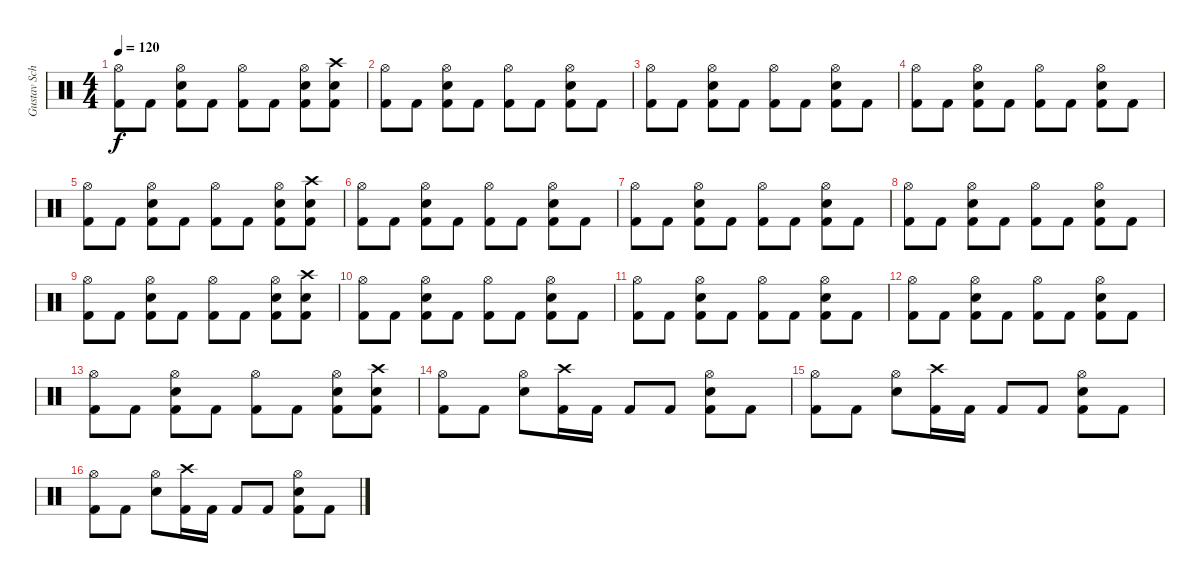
\track ("Gustav Schäfer" "Gustav Sch") {instrument percussion}
\staff {score}
\articulation defaults
\ts (4 4)
\tempo 120
\clef neutral
\ks c
("Hi-Hat (open)" "Kick (hit) 2").8{dy f} "Kick (hit) 2".8 ("Hi-Hat (open)" "Electric Snare (hit)" "Kick (hit) 2").8 "Kick (hit) 2".8 ("Hi-Hat (open)" "Kick (hit) 2").8 "Kick (hit) 2".8 ("Hi-Hat (open)" "Electric Snare (hit)" "Kick (hit) 2").8 ("Crash high (hit)" "Electric Snare (hit)" "Kick (hit) 2").8 |
("Hi-Hat (open)" "Kick (hit) 2").8 "Kick (hit) 2".8 ("Hi-Hat (open)" "Electric Snare (hit)" "Kick (hit) 2").8 "Kick (hit) 2".8 ("Hi-Hat (open)" "Kick (hit) 2").8 "Kick (hit) 2".8 ("Hi-Hat (open)" "Electric Snare (hit)" "Kick (hit) 2").8 "Kick (hit) 2".8 |
("Hi-Hat (open)" "Kick (hit) 2").8 "Kick (hit) 2".8 ("Hi-Hat (open)" "Electric Snare (hit)" "Kick (hit) 2").8 "Kick (hit) 2".8 ("Hi-Hat (open)" "Kick (hit) 2").8 "Kick (hit) 2".8 ("Hi-Hat (open)" "Electric Snare (hit)" "Kick (hit) 2").8 "Kick (hit) 2".8 |
("Hi-Hat (open)" "Kick (hit) 2").8 "Kick (hit) 2".8 ("Hi-Hat (open)" "Electric Snare (hit)" "Kick (hit) 2").8 "Kick (hit) 2".8 ("Hi-Hat (open)" "Kick (hit) 2").8 "Kick (hit) 2".8 ("Hi-Hat (open)" "Electric Snare (hit)" "Kick (hit) 2").8 "Kick (hit) 2".8 |
("Hi-Hat (open)" "Kick (hit) 2").8 "Kick (hit) 2".8 ("Hi-Hat (open)" "Electric Snare (hit)" "Kick (hit) 2").8 "Kick (hit) 2".8 ("Hi-Hat (open)" "Kick (hit) 2").8 "Kick (hit) 2".8 ("Hi-Hat (open)" "Electric Snare (hit)" "Kick (hit) 2").8 ("Crash high (hit)" "Electric Snare (hit)" "Kick (hit) 2").8 |
("Hi-Hat (open)" "Kick (hit) 2").8 "Kick (hit) 2".8 ("Hi-Hat (open)" "Electric Snare (hit)" "Kick (hit) 2").8 "Kick (hit) 2".8 ("Hi-Hat (open)" "Kick (hit) 2").8 "Kick (hit) 2".8 ("Hi-Hat (open)" "Electric Snare (hit)" "Kick (hit) 2").8 "Kick (hit) 2".8 |
("Hi-Hat (open)" "Kick (hit) 2").8 "Kick (hit) 2".8 ("Hi-Hat (open)" "Electric Snare (hit)" "Kick (hit) 2").8 "Kick (hit) 2".8 ("Hi-Hat (open)" "Kick (hit) 2").8 "Kick (hit) 2".8 ("Hi-Hat (open)" "Electric Snare (hit)" "Kick (hit) 2").8 "Kick (hit) 2".8 |
("Hi-Hat (open)" "Kick (hit) 2").8 "Kick (hit) 2".8 ("Hi-Hat (open)" "Electric Snare (hit)" "Kick (hit) 2").8 "Kick (hit) 2".8 ("Hi-Hat (open)" "Kick (hit) 2").8 "Kick (hit) 2".8 ("Hi-Hat (open)" "Electric Snare (hit)" "Kick (hit) 2").8 "Kick (hit) 2".8 |
("Hi-Hat (open)" "Kick (hit) 2").8 "Kick (hit) 2".8 ("Hi-Hat (open)" "Electric Snare (hit)" "Kick (hit) 2").8 "Kick (hit) 2".8 ("Hi-Hat (open)" "Kick (hit) 2").8 "Kick (hit) 2".8 ("Hi-Hat (open)" "Electric Snare (hit)" "Kick (hit) 2").8 ("Crash high (hit)" "Electric Snare (hit)" "Kick (hit) 2").8 |
("Hi-Hat (open)" "Kick (hit) 2").8 "Kick (hit) 2".8 ("Hi-Hat (open)" "Electric Snare (hit)" "Kick (hit) 2").8 "Kick (hit) 2".8 ("Hi-Hat (open)" "Kick (hit) 2").8 "Kick (hit) 2".8 ("Hi-Hat (open)" "Electric Snare (hit)" "Kick (hit) 2").8 "Kick (hit) 2".8 |
("Hi-Hat (open)" "Kick (hit) 2").8 "Kick (hit) 2".8 ("Hi-Hat (open)" "Electric Snare (hit)" "Kick (hit) 2").8 "Kick (hit) 2".8 ("Hi-Hat (open)" "Kick (hit) 2").8 "Kick (hit) 2".8 ("Hi-Hat (open)" "Electric Snare (hit)" "Kick (hit) 2").8 "Kick (hit) 2".8 |
("Hi-Hat (open)" "Kick (hit) 2").8 "Kick (hit) 2".8 ("Hi-Hat (open)" "Electric Snare (hit)" "Kick (hit) 2").8 "Kick (hit) 2".8 ("Hi-Hat (open)" "Kick (hit) 2").8 "Kick (hit) 2".8 ("Hi-Hat (open)" "Electric Snare (hit)" "Kick (hit) 2").8 "Kick (hit) 2".8 |
("Hi-Hat (open)" "Kick (hit) 2").8 "Kick (hit) 2".8 ("Hi-Hat (open)" "Electric Snare (hit)" "Kick (hit) 2").8 "Kick (hit) 2".8 ("Hi-Hat (open)" "Kick (hit) 2").8 "Kick (hit) 2".8 ("Hi-Hat (open)" "Electric Snare (hit)" "Kick (hit) 2").8 ("Crash high (hit)" "Electric Snare (hit)" "Kick (hit) 2").8 |
("Hi-Hat (open)" "Kick (hit) 2").8 "Kick (hit) 2".8 ("Hi-Hat (open)" "Electric Snare (hit)").8 ("Crash high (hit)" "Kick (hit) 2").16 "Kick (hit) 2".16 "Kick (hit) 2".8 "Kick (hit) 2".8 ("Hi-Hat (open)" "Electric Snare (hit)" "Kick (hit) 2").8 "Kick (hit) 2".8 |
("Hi-Hat (open)" "Kick (hit) 2").8 "Kick (hit) 2".8 ("Hi-Hat (open)" "Electric Snare (hit)").8 ("Crash high (hit)" "Kick (hit) 2").16 "Kick (hit) 2".16 "Kick (hit) 2".8 "Kick (hit) 2".8 ("Hi-Hat (open)" "Electric Snare (hit)" "Kick (hit) 2").8 "Kick (hit) 2".8 |
("Hi-Hat (open)" "Kick (hit) 2").8 "Kick (hit) 2".8 ("Hi-Hat (open)" "Electric Snare (hit)").8 ("Crash high (hit)" "Kick (hit) 2").16 "Kick (hit) 2".16 "Kick (hit) 2".8 "Kick (hit) 2".8 ("Hi-Hat (open)" "Electric Snare (hit)" "Kick (hit) 2").8 "Kick (hit) 2".8
